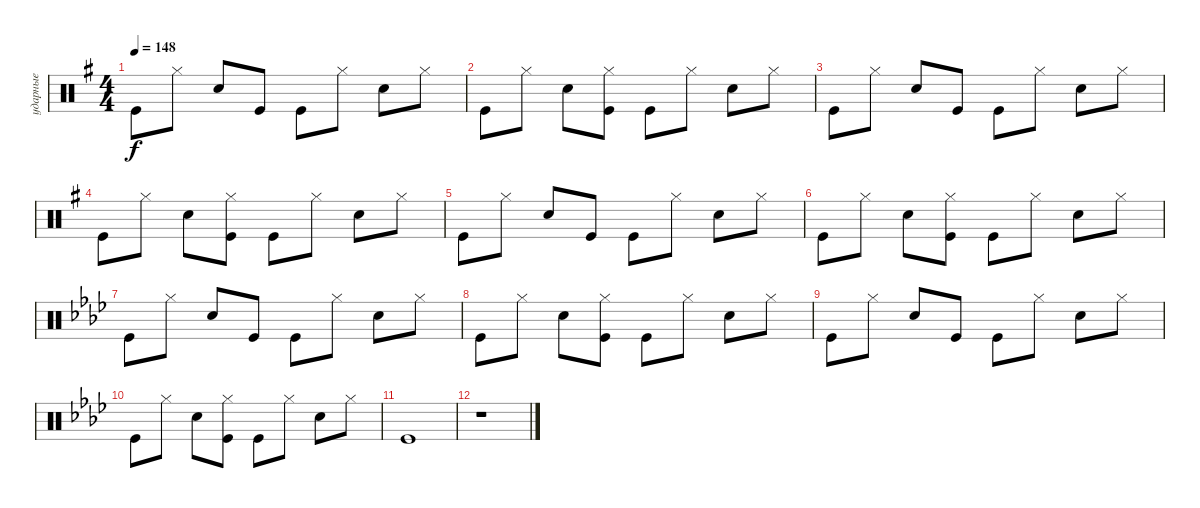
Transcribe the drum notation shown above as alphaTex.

\track ("ударные" "ударные") {instrument percussion}
\staff {score}
\articulation defaults
\ts (4 4)
\tempo 148
\clef neutral
\ks g "Kick (hit)".8{dy f} "Hi-Hat (closed)".8 "Snare (hit) 2".8 "Kick (hit)".8 "Kick (hit)".8 "Hi-Hat (closed)".8 "Snare (hit) 2".8 "Hi-Hat (closed)".8
|
"Kick (hit)".8 "Hi-Hat (closed)".8 "Snare (hit) 2".8 ("Kick (hit)" "Hi-Hat (closed)").8 "Kick (hit)".8 "Hi-Hat (closed)".8 "Snare (hit) 2".8 "Hi-Hat (closed)".8 |
"Kick (hit)".8 "Hi-Hat (closed)".8 "Snare (hit) 2".8 "Kick (hit)".8 "Kick (hit)".8 "Hi-Hat (closed)".8 "Snare (hit) 2".8 "Hi-Hat (closed)".8 |
"Kick (hit)".8 "Hi-Hat (closed)".8 "Snare (hit) 2".8 ("Kick (hit)" "Hi-Hat (closed)").8 "Kick (hit)".8 "Hi-Hat (closed)".8 "Snare (hit) 2".8 "Hi-Hat (closed)".8 |
"Kick (hit)".8 "Hi-Hat (closed)".8 "Snare (hit) 2".8 "Kick (hit)".8 "Kick (hit)".8 "Hi-Hat (closed)".8 "Snare (hit) 2".8 "Hi-Hat (closed)".8 |
"Kick (hit)".8 "Hi-Hat (closed)".8 "Snare (hit) 2".8 ("Kick (hit)" "Hi-Hat (closed)").8 "Kick (hit)".8 "Hi-Hat (closed)".8 "Snare (hit) 2".8 "Hi-Hat (closed)".8 |
\ks ab "Kick (hit)".8 "Hi-Hat (closed)".8 "Snare (hit) 2".8 "Kick (hit)".8 "Kick (hit)".8 "Hi-Hat (closed)".8 "Snare (hit) 2".8 "Hi-Hat (closed)".8
|
"Kick (hit)".8 "Hi-Hat (closed)".8 "Snare (hit) 2".8 ("Kick (hit)" "Hi-Hat (closed)").8 "Kick (hit)".8 "Hi-Hat (closed)".8 "Snare (hit) 2".8 "Hi-Hat (closed)".8 |
"Kick (hit)".8 "Hi-Hat (closed)".8 "Snare (hit) 2".8 "Kick (hit)".8 "Kick (hit)".8 "Hi-Hat (closed)".8 "Snare (hit) 2".8 "Hi-Hat (closed)".8 |
"Kick (hit)".8 "Hi-Hat (closed)".8 "Snare (hit) 2".8 ("Kick (hit)" "Hi-Hat (closed)").8 "Kick (hit)".8 "Hi-Hat (closed)".8 "Snare (hit) 2".8 "Hi-Hat (closed)".8 |
"Kick (hit)".1 |
r.1
